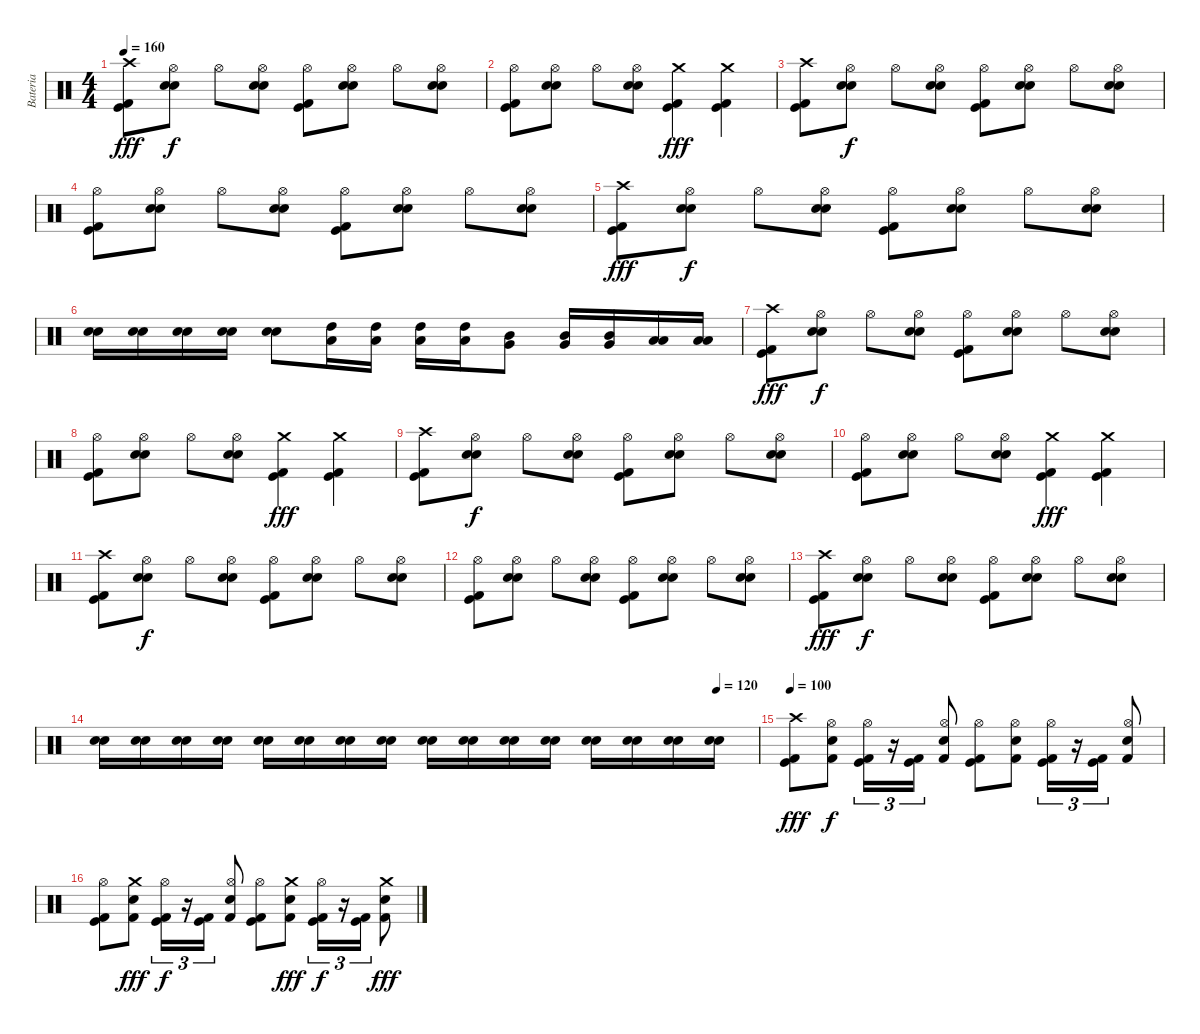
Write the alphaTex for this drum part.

\track ("Bateria" "Bateria") {instrument percussion}
\staff {score}
\articulation defaults
\ts (4 4)
\tempo 160
\clef neutral
\ks c
("Crash high (hit)" "Kick (hit) 2" "Kick (hit)").8{dy fff} ("Hi-Hat (open)" "Electric Snare (hit)" "Snare (hit) 2").8{dy f} "Hi-Hat (open)".8 ("Hi-Hat (open)" "Electric Snare (hit)" "Snare (hit) 2").8 ("Hi-Hat (open)" "Kick (hit) 2" "Kick (hit)").8 ("Hi-Hat (open)" "Electric Snare (hit)" "Snare (hit) 2").8 "Hi-Hat (open)".8 ("Hi-Hat (open)" "Electric Snare (hit)" "Snare (hit) 2").8 |
("Hi-Hat (open)" "Kick (hit) 2" "Kick (hit)").8 ("Hi-Hat (open)" "Electric Snare (hit)" "Snare (hit) 2").8 "Hi-Hat (open)".8 ("Hi-Hat (open)" "Electric Snare (hit)" "Snare (hit) 2").8 ("Crash medium (hit)" "Kick (hit) 2" "Kick (hit)").4{dy fff} ("Crash medium (hit)" "Kick (hit) 2" "Kick (hit)").4 |
("Crash high (hit)" "Kick (hit) 2" "Kick (hit)").8 ("Hi-Hat (open)" "Electric Snare (hit)" "Snare (hit) 2").8{dy f} "Hi-Hat (open)".8 ("Hi-Hat (open)" "Electric Snare (hit)" "Snare (hit) 2").8 ("Hi-Hat (open)" "Kick (hit) 2" "Kick (hit)").8 ("Hi-Hat (open)" "Electric Snare (hit)" "Snare (hit) 2").8 "Hi-Hat (open)".8 ("Hi-Hat (open)" "Electric Snare (hit)" "Snare (hit) 2").8 |
("Hi-Hat (open)" "Kick (hit) 2" "Kick (hit)").8 ("Hi-Hat (open)" "Electric Snare (hit)" "Snare (hit) 2").8 "Hi-Hat (open)".8 ("Hi-Hat (open)" "Electric Snare (hit)" "Snare (hit) 2").8 ("Hi-Hat (open)" "Kick (hit) 2" "Kick (hit)").8 ("Hi-Hat (open)" "Electric Snare (hit)" "Snare (hit) 2").8 "Hi-Hat (open)".8 ("Hi-Hat (open)" "Electric Snare (hit)" "Snare (hit) 2").8 |
("Crash high (hit)" "Kick (hit) 2" "Kick (hit)").8{dy fff} ("Hi-Hat (open)" "Electric Snare (hit)" "Snare (hit) 2").8{dy f} "Hi-Hat (open)".8 ("Hi-Hat (open)" "Electric Snare (hit)" "Snare (hit) 2").8 ("Hi-Hat (open)" "Kick (hit) 2" "Kick (hit)").8 ("Hi-Hat (open)" "Electric Snare (hit)" "Snare (hit) 2").8 "Hi-Hat (open)".8 ("Hi-Hat (open)" "Electric Snare (hit)" "Snare (hit) 2").8 |
("Electric Snare (hit)" "Snare (hit) 2").16 ("Electric Snare (hit)" "Snare (hit) 2").16 ("Electric Snare (hit)" "Snare (hit) 2").16 ("Electric Snare (hit)" "Snare (hit) 2").16 ("Electric Snare (hit)" "Snare (hit) 2").8 ("High Tom (hit)" "Low Tom (hit)").16 ("High Tom (hit)" "Low Tom (hit)").16 ("High Tom (hit)" "Low Tom (hit)").16 ("High Tom (hit)" "Low Tom (hit)").16 ("Mid Tom (hit)" "Very Low Tom (hit)").8 ("Mid Tom (hit)" "Very Low Tom (hit)").16 ("Mid Tom (hit)" "Very Low Tom (hit)").16 ("Low Tom (hit)" "Low Floor Tom (hit)").16 ("Low Tom (hit)" "Low Floor Tom (hit)").16 |
("Crash high (hit)" "Kick (hit) 2" "Kick (hit)").8{dy fff} ("Hi-Hat (open)" "Electric Snare (hit)" "Snare (hit) 2").8{dy f} "Hi-Hat (open)".8 ("Hi-Hat (open)" "Electric Snare (hit)" "Snare (hit) 2").8 ("Hi-Hat (open)" "Kick (hit) 2" "Kick (hit)").8 ("Hi-Hat (open)" "Electric Snare (hit)" "Snare (hit) 2").8 "Hi-Hat (open)".8 ("Hi-Hat (open)" "Electric Snare (hit)" "Snare (hit) 2").8 |
("Hi-Hat (open)" "Kick (hit) 2" "Kick (hit)").8 ("Hi-Hat (open)" "Electric Snare (hit)" "Snare (hit) 2").8 "Hi-Hat (open)".8 ("Hi-Hat (open)" "Electric Snare (hit)" "Snare (hit) 2").8 ("Crash medium (hit)" "Kick (hit) 2" "Kick (hit)").4{dy fff} ("Crash medium (hit)" "Kick (hit) 2" "Kick (hit)").4 |
("Crash high (hit)" "Kick (hit) 2" "Kick (hit)").8 ("Hi-Hat (open)" "Electric Snare (hit)" "Snare (hit) 2").8{dy f} "Hi-Hat (open)".8 ("Hi-Hat (open)" "Electric Snare (hit)" "Snare (hit) 2").8 ("Hi-Hat (open)" "Kick (hit) 2" "Kick (hit)").8 ("Hi-Hat (open)" "Electric Snare (hit)" "Snare (hit) 2").8 "Hi-Hat (open)".8 ("Hi-Hat (open)" "Electric Snare (hit)" "Snare (hit) 2").8 |
("Hi-Hat (open)" "Kick (hit) 2" "Kick (hit)").8 ("Hi-Hat (open)" "Electric Snare (hit)" "Snare (hit) 2").8 "Hi-Hat (open)".8 ("Hi-Hat (open)" "Electric Snare (hit)" "Snare (hit) 2").8 ("Crash medium (hit)" "Kick (hit) 2" "Kick (hit)").4{dy fff} ("Crash medium (hit)" "Kick (hit) 2" "Kick (hit)").4 |
("Crash high (hit)" "Kick (hit) 2" "Kick (hit)").8 ("Hi-Hat (open)" "Electric Snare (hit)" "Snare (hit) 2").8{dy f} "Hi-Hat (open)".8 ("Hi-Hat (open)" "Electric Snare (hit)" "Snare (hit) 2").8 ("Hi-Hat (open)" "Kick (hit) 2" "Kick (hit)").8 ("Hi-Hat (open)" "Electric Snare (hit)" "Snare (hit) 2").8 "Hi-Hat (open)".8 ("Hi-Hat (open)" "Electric Snare (hit)" "Snare (hit) 2").8 |
("Hi-Hat (open)" "Kick (hit) 2" "Kick (hit)").8 ("Hi-Hat (open)" "Electric Snare (hit)" "Snare (hit) 2").8 "Hi-Hat (open)".8 ("Hi-Hat (open)" "Electric Snare (hit)" "Snare (hit) 2").8 ("Hi-Hat (open)" "Kick (hit) 2" "Kick (hit)").8 ("Hi-Hat (open)" "Electric Snare (hit)" "Snare (hit) 2").8 "Hi-Hat (open)".8 ("Hi-Hat (open)" "Electric Snare (hit)" "Snare (hit) 2").8 |
("Crash high (hit)" "Kick (hit) 2" "Kick (hit)").8{dy fff} ("Hi-Hat (open)" "Electric Snare (hit)" "Snare (hit) 2").8{dy f} "Hi-Hat (open)".8 ("Hi-Hat (open)" "Electric Snare (hit)" "Snare (hit) 2").8 ("Hi-Hat (open)" "Kick (hit) 2" "Kick (hit)").8 ("Hi-Hat (open)" "Electric Snare (hit)" "Snare (hit) 2").8 "Hi-Hat (open)".8 ("Hi-Hat (open)" "Electric Snare (hit)" "Snare (hit) 2").8 |
\tempo (120 0.9375)
("Electric Snare (hit)" "Snare (hit) 2").16 ("Electric Snare (hit)" "Snare (hit) 2").16 ("Electric Snare (hit)" "Snare (hit) 2").16 ("Electric Snare (hit)" "Snare (hit) 2").16 ("Electric Snare (hit)" "Snare (hit) 2").16 ("Electric Snare (hit)" "Snare (hit) 2").16 ("Electric Snare (hit)" "Snare (hit) 2").16 ("Electric Snare (hit)" "Snare (hit) 2").16 ("Electric Snare (hit)" "Snare (hit) 2").16 ("Electric Snare (hit)" "Snare (hit) 2").16 ("Electric Snare (hit)" "Snare (hit) 2").16 ("Electric Snare (hit)" "Snare (hit) 2").16 ("Electric Snare (hit)" "Snare (hit) 2").16 ("Electric Snare (hit)" "Snare (hit) 2").16 ("Electric Snare (hit)" "Snare (hit) 2").16 ("Electric Snare (hit)" "Snare (hit) 2").16 |
\tempo 100
("Crash high (hit)" "Kick (hit) 2" "Kick (hit)").8{dy fff} ("Hi-Hat (open)" "Electric Snare (hit)" "Kick (hit) 2").8{dy f} ("Hi-Hat (open)" "Kick (hit) 2" "Kick (hit)").16{tu (3 2)} r.16{tu (3 2)} ("Kick (hit) 2" "Kick (hit)").16{tu (3 2)} ("Hi-Hat (open)" "Electric Snare (hit)" "Kick (hit) 2").8 ("Hi-Hat (open)" "Kick (hit) 2" "Kick (hit)").8 ("Hi-Hat (open)" "Electric Snare (hit)" "Kick (hit) 2").8 ("Hi-Hat (open)" "Kick (hit) 2" "Kick (hit)").16{tu (3 2)} r.16{tu (3 2)} ("Kick (hit) 2" "Kick (hit)").16{tu (3 2)} ("Hi-Hat (open)" "Electric Snare (hit)" "Kick (hit) 2").8 |
("Hi-Hat (open)" "Kick (hit) 2" "Kick (hit)").8 ("Crash medium (hit)" "Electric Snare (hit)" "Kick (hit) 2").8{dy fff} ("Hi-Hat (open)" "Kick (hit) 2" "Kick (hit)").16{tu (3 2) dy f} r.16{tu (3 2)} ("Kick (hit) 2" "Kick (hit)").16{tu (3 2)} ("Hi-Hat (open)" "Electric Snare (hit)" "Kick (hit) 2").8 ("Hi-Hat (open)" "Kick (hit) 2" "Kick (hit)").8 ("Crash medium (hit)" "Electric Snare (hit)" "Kick (hit) 2").8{dy fff} ("Hi-Hat (open)" "Kick (hit) 2" "Kick (hit)").16{tu (3 2) dy f} r.16{tu (3 2)} ("Kick (hit) 2" "Kick (hit)").16{tu (3 2)} ("Crash medium (hit)" "Electric Snare (hit)" "Kick (hit) 2").8{dy fff}
